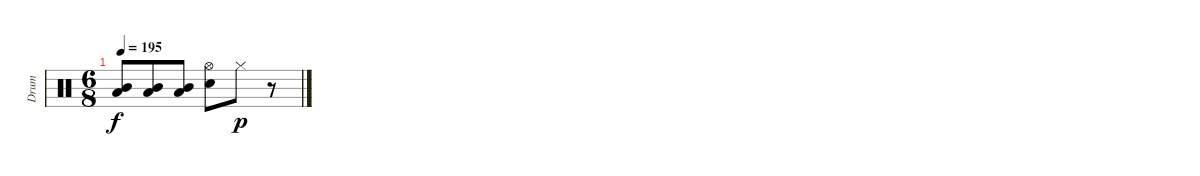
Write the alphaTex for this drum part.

\track ("Drum" "Drum") {instrument percussion}
\staff {score}
\articulation defaults
\ts (6 8)
\tempo 195
\clef neutral
\ks c
("Mid Tom (hit)" "Low Tom (hit)").8{dy f} ("Mid Tom (hit)" "Low Tom (hit)").8 ("Mid Tom (hit)" "Low Tom (hit)").8 ("Hi-Hat (open)" "Electric Snare (hit)").8 "Hi-Hat (closed)".8{dy p} r.8
